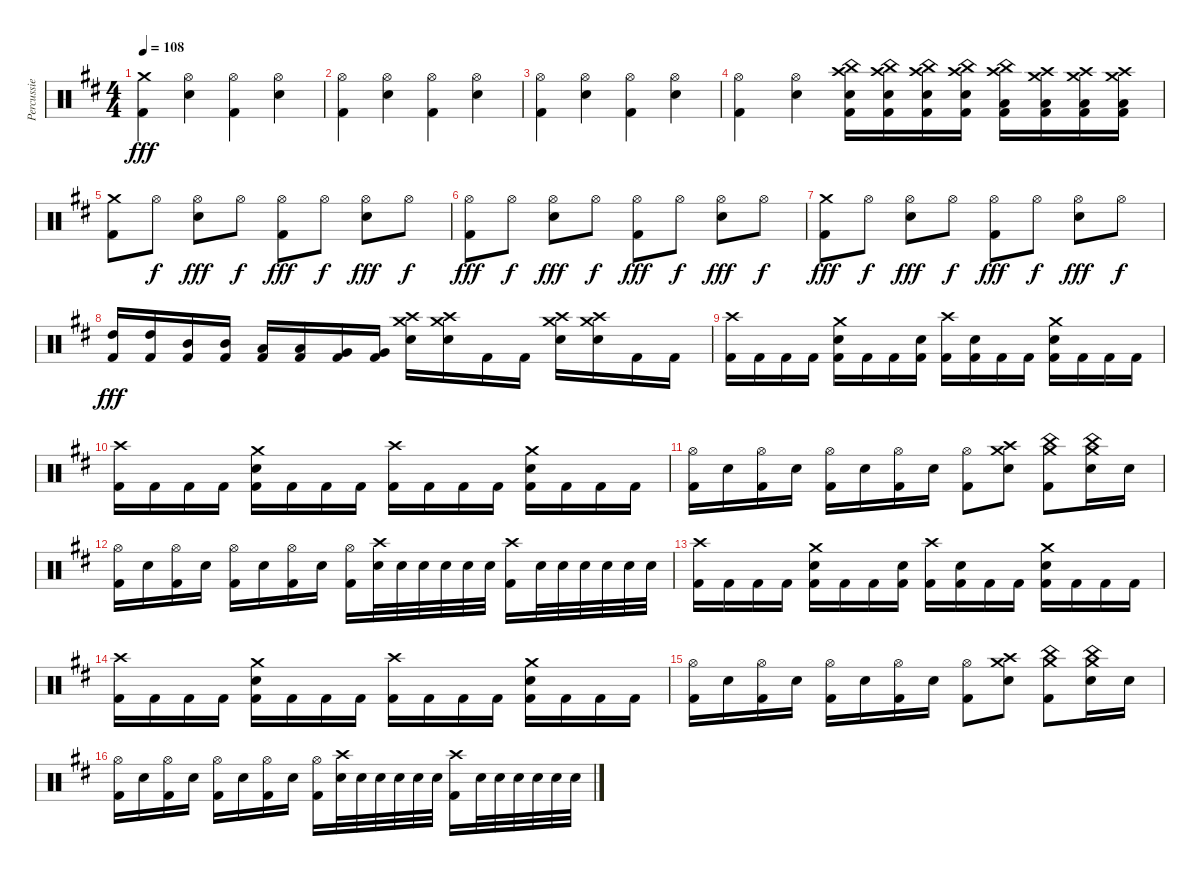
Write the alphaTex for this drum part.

\track ("Percussie" "Percussie") {instrument percussion}
\staff {score}
\articulation defaults
\ts (4 4)
\tempo 108
\clef neutral
\ks d
("Crash medium (hit)" "Kick (hit) 2").4{dy fff} ("Hi-Hat (open)" "Snare (hit) 2").4 ("Hi-Hat (open)" "Kick (hit) 2").4 ("Hi-Hat (open)" "Snare (hit) 2").4 |
("Hi-Hat (open)" "Kick (hit) 2").4 ("Hi-Hat (open)" "Snare (hit) 2").4 ("Hi-Hat (open)" "Kick (hit) 2").4 ("Hi-Hat (open)" "Snare (hit) 2").4 |
("Hi-Hat (open)" "Kick (hit) 2").4 ("Hi-Hat (open)" "Snare (hit) 2").4 ("Hi-Hat (open)" "Kick (hit) 2").4 ("Hi-Hat (open)" "Snare (hit) 2").4 |
("Hi-Hat (open)" "Kick (hit) 2").4 ("Hi-Hat (open)" "Snare (hit) 2").4 ("Crash high (hit)" "China (hit)" "Snare (hit) 2" "Kick (hit) 2").16 ("Crash high (hit)" "China (hit)" "Snare (hit) 2" "Kick (hit) 2").16 ("Crash high (hit)" "China (hit)" "Snare (hit) 2" "Kick (hit) 2").16 ("Crash high (hit)" "China (hit)" "Snare (hit) 2" "Kick (hit) 2").16 ("Crash high (hit)" "China (hit)" "Low Tom (hit)" "Kick (hit) 2").16 ("Crash high (hit)" "Crash medium (hit)" "Low Tom (hit)" "Kick (hit) 2").16 ("Crash high (hit)" "Crash medium (hit)" "Low Tom (hit)" "Kick (hit) 2").16 ("Crash high (hit)" "Crash medium (hit)" "Low Tom (hit)" "Kick (hit) 2").16 |
("Crash medium (hit)" "Kick (hit) 2").8 "Hi-Hat (open)".8{dy f} ("Hi-Hat (open)" "Snare (hit) 2").8{dy fff} "Hi-Hat (open)".8{dy f} ("Hi-Hat (open)" "Kick (hit) 2").8{dy fff} "Hi-Hat (open)".8{dy f} ("Hi-Hat (open)" "Snare (hit) 2").8{dy fff} "Hi-Hat (open)".8{dy f} |
("Hi-Hat (open)" "Kick (hit) 2").8{dy fff} "Hi-Hat (open)".8{dy f} ("Hi-Hat (open)" "Snare (hit) 2").8{dy fff} "Hi-Hat (open)".8{dy f} ("Hi-Hat (open)" "Kick (hit) 2").8{dy fff} "Hi-Hat (open)".8{dy f} ("Hi-Hat (open)" "Snare (hit) 2").8{dy fff} "Hi-Hat (open)".8{dy f} |
("Crash medium (hit)" "Kick (hit) 2").8{dy fff} "Hi-Hat (open)".8{dy f} ("Hi-Hat (open)" "Snare (hit) 2").8{dy fff} "Hi-Hat (open)".8{dy f} ("Hi-Hat (open)" "Kick (hit) 2").8{dy fff} "Hi-Hat (open)".8{dy f} ("Hi-Hat (open)" "Snare (hit) 2").8{dy fff} "Hi-Hat (open)".8{dy f} |
("High Tom (hit)" "Kick (hit) 2").16{dy fff} ("High Tom (hit)" "Kick (hit) 2").16 ("Mid Tom (hit)" "Kick (hit) 2").16 ("Mid Tom (hit)" "Kick (hit) 2").16 ("Low Tom (hit)" "Kick (hit) 2").16 ("Low Tom (hit)" "Kick (hit) 2").16 ("Very Low Tom (hit)" "Kick (hit) 2").16 ("Very Low Tom (hit)" "Kick (hit) 2").16 ("Crash high (hit)" "Crash medium (hit)" "Snare (hit) 2").16 ("Crash high (hit)" "Crash medium (hit)" "Snare (hit) 2").16 "Kick (hit) 2".16 "Kick (hit) 2".16 ("Crash high (hit)" "Crash medium (hit)" "Snare (hit) 2").16 ("Crash high (hit)" "Crash medium (hit)" "Snare (hit) 2").16 "Kick (hit) 2".16 "Kick (hit) 2".16 |
("Crash high (hit)" "Kick (hit) 2").16 "Kick (hit) 2".16 "Kick (hit) 2".16 "Kick (hit) 2".16 ("Crash medium (hit)" "Snare (hit) 2" "Kick (hit) 2").16 "Kick (hit) 2".16 "Kick (hit) 2".16 ("Snare (hit) 2" "Kick (hit) 2").16 ("Crash high (hit)" "Kick (hit) 2").16 ("Snare (hit) 2" "Kick (hit) 2").16 "Kick (hit) 2".16 "Kick (hit) 2".16 ("Crash medium (hit)" "Snare (hit) 2" "Kick (hit) 2").16 "Kick (hit) 2".16 "Kick (hit) 2".16 "Kick (hit) 2".16 |
("Crash high (hit)" "Kick (hit) 2").16 "Kick (hit) 2".16 "Kick (hit) 2".16 "Kick (hit) 2".16 ("Crash medium (hit)" "Snare (hit) 2" "Kick (hit) 2").16 "Kick (hit) 2".16 "Kick (hit) 2".16 "Kick (hit) 2".16 ("Crash high (hit)" "Kick (hit) 2").16 "Kick (hit) 2".16 "Kick (hit) 2".16 "Kick (hit) 2".16 ("Crash medium (hit)" "Snare (hit) 2" "Kick (hit) 2").16 "Kick (hit) 2".16 "Kick (hit) 2".16 "Kick (hit) 2".16 |
("Hi-Hat (open)" "Kick (hit) 2").16 "Snare (hit) 2".16 ("Hi-Hat (open)" "Kick (hit) 2").16 "Snare (hit) 2".16 ("Hi-Hat (open)" "Kick (hit) 2").16 "Snare (hit) 2".16 ("Hi-Hat (open)" "Kick (hit) 2").16 "Snare (hit) 2".16 ("Hi-Hat (open)" "Kick (hit) 2").8 ("Crash high (hit)" "Crash medium (hit)" "Snare (hit) 2").8 ("China (hit)" "Crash medium (hit)" "Kick (hit) 2").8 ("China (hit)" "Crash medium (hit)" "Snare (hit) 2").16 "Snare (hit) 2".16 |
("Hi-Hat (open)" "Kick (hit) 2").16 "Snare (hit) 2".16 ("Hi-Hat (open)" "Kick (hit) 2").16 "Snare (hit) 2".16 ("Hi-Hat (open)" "Kick (hit) 2").16 "Snare (hit) 2".16 ("Hi-Hat (open)" "Kick (hit) 2").16 "Snare (hit) 2".16 ("Hi-Hat (open)" "Kick (hit) 2").16 ("Crash high (hit)" "Snare (hit) 2").32 "Snare (hit) 2".32 "Snare (hit) 2".32 "Snare (hit) 2".32 "Snare (hit) 2".32 "Snare (hit) 2".32 ("Crash high (hit)" "Kick (hit) 2").16 "Snare (hit) 2".32 "Snare (hit) 2".32 "Snare (hit) 2".32 "Snare (hit) 2".32 "Snare (hit) 2".32 "Snare (hit) 2".32 |
("Crash high (hit)" "Kick (hit) 2").16 "Kick (hit) 2".16 "Kick (hit) 2".16 "Kick (hit) 2".16 ("Crash medium (hit)" "Snare (hit) 2" "Kick (hit) 2").16 "Kick (hit) 2".16 "Kick (hit) 2".16 ("Snare (hit) 2" "Kick (hit) 2").16 ("Crash high (hit)" "Kick (hit) 2").16 ("Snare (hit) 2" "Kick (hit) 2").16 "Kick (hit) 2".16 "Kick (hit) 2".16 ("Crash medium (hit)" "Snare (hit) 2" "Kick (hit) 2").16 "Kick (hit) 2".16 "Kick (hit) 2".16 "Kick (hit) 2".16 |
("Crash high (hit)" "Kick (hit) 2").16 "Kick (hit) 2".16 "Kick (hit) 2".16 "Kick (hit) 2".16 ("Crash medium (hit)" "Snare (hit) 2" "Kick (hit) 2").16 "Kick (hit) 2".16 "Kick (hit) 2".16 "Kick (hit) 2".16 ("Crash high (hit)" "Kick (hit) 2").16 "Kick (hit) 2".16 "Kick (hit) 2".16 "Kick (hit) 2".16 ("Crash medium (hit)" "Snare (hit) 2" "Kick (hit) 2").16 "Kick (hit) 2".16 "Kick (hit) 2".16 "Kick (hit) 2".16 |
("Hi-Hat (open)" "Kick (hit) 2").16 "Snare (hit) 2".16 ("Hi-Hat (open)" "Kick (hit) 2").16 "Snare (hit) 2".16 ("Hi-Hat (open)" "Kick (hit) 2").16 "Snare (hit) 2".16 ("Hi-Hat (open)" "Kick (hit) 2").16 "Snare (hit) 2".16 ("Hi-Hat (open)" "Kick (hit) 2").8 ("Crash high (hit)" "Crash medium (hit)" "Snare (hit) 2").8 ("China (hit)" "Crash medium (hit)" "Kick (hit) 2").8 ("China (hit)" "Crash medium (hit)" "Snare (hit) 2").16 "Snare (hit) 2".16 |
("Hi-Hat (open)" "Kick (hit) 2").16 "Snare (hit) 2".16 ("Hi-Hat (open)" "Kick (hit) 2").16 "Snare (hit) 2".16 ("Hi-Hat (open)" "Kick (hit) 2").16 "Snare (hit) 2".16 ("Hi-Hat (open)" "Kick (hit) 2").16 "Snare (hit) 2".16 ("Hi-Hat (open)" "Kick (hit) 2").16 ("Crash high (hit)" "Snare (hit) 2").32 "Snare (hit) 2".32 "Snare (hit) 2".32 "Snare (hit) 2".32 "Snare (hit) 2".32 "Snare (hit) 2".32 ("Crash high (hit)" "Kick (hit) 2").16 "Snare (hit) 2".32 "Snare (hit) 2".32 "Snare (hit) 2".32 "Snare (hit) 2".32 "Snare (hit) 2".32 "Snare (hit) 2".32
